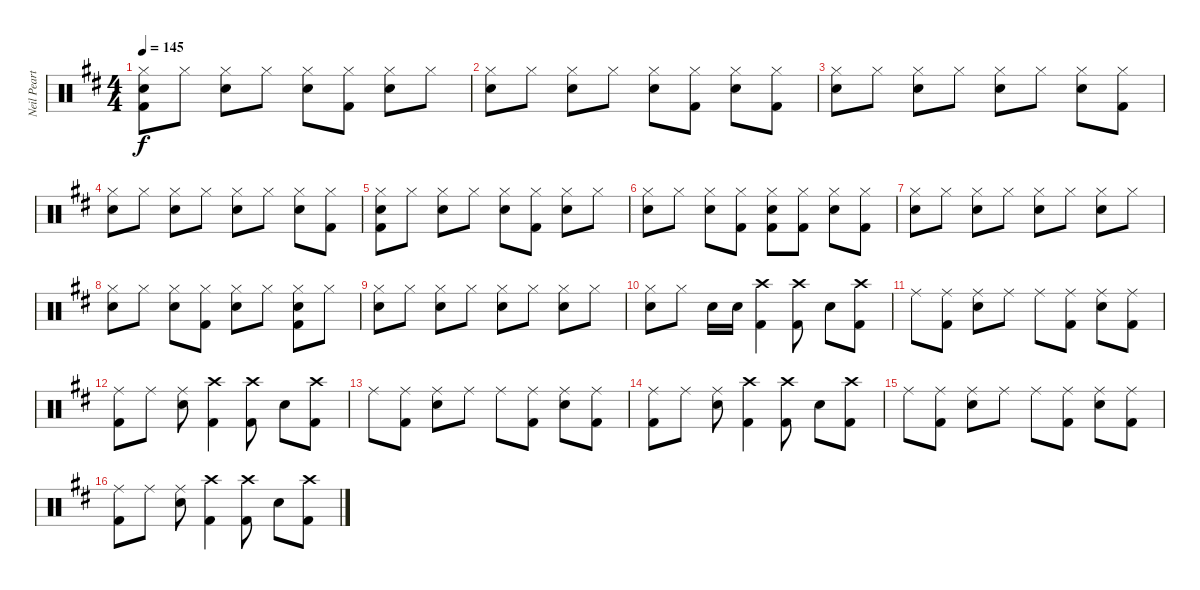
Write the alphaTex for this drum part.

\track ("Neil Peart" "Neil Peart") {instrument percussion}
\staff {score}
\articulation defaults
\ts (4 4)
\tempo 145
\clef neutral
\ks d
("Hi-Hat (closed)" "Snare (hit) 2" "Kick (hit) 2").8{dy f} "Hi-Hat (closed)".8 ("Hi-Hat (closed)" "Snare (hit) 2").8 "Hi-Hat (closed)".8 ("Hi-Hat (closed)" "Snare (hit) 2").8 ("Hi-Hat (closed)" "Kick (hit) 2").8 ("Hi-Hat (closed)" "Snare (hit) 2").8 "Hi-Hat (closed)".8 |
("Hi-Hat (closed)" "Snare (hit) 2").8 "Hi-Hat (closed)".8 ("Hi-Hat (closed)" "Snare (hit) 2").8 "Hi-Hat (closed)".8 ("Hi-Hat (closed)" "Snare (hit) 2").8 ("Hi-Hat (closed)" "Kick (hit) 2").8 ("Hi-Hat (closed)" "Snare (hit) 2").8 ("Hi-Hat (closed)" "Kick (hit) 2").8 |
("Hi-Hat (closed)" "Snare (hit) 2").8 "Hi-Hat (closed)".8 ("Hi-Hat (closed)" "Snare (hit) 2").8 "Hi-Hat (closed)".8 ("Hi-Hat (closed)" "Snare (hit) 2").8 "Hi-Hat (closed)".8 ("Hi-Hat (closed)" "Snare (hit) 2").8 ("Hi-Hat (closed)" "Kick (hit) 2").8 |
("Hi-Hat (closed)" "Snare (hit) 2").8 "Hi-Hat (closed)".8 ("Hi-Hat (closed)" "Snare (hit) 2").8 "Hi-Hat (closed)".8 ("Hi-Hat (closed)" "Snare (hit) 2").8 "Hi-Hat (closed)".8 ("Hi-Hat (closed)" "Snare (hit) 2").8 ("Hi-Hat (closed)" "Kick (hit) 2").8 |
("Hi-Hat (closed)" "Snare (hit) 2" "Kick (hit) 2").8 "Hi-Hat (closed)".8 ("Hi-Hat (closed)" "Snare (hit) 2").8 "Hi-Hat (closed)".8 ("Hi-Hat (closed)" "Snare (hit) 2").8 ("Hi-Hat (closed)" "Kick (hit) 2").8 ("Hi-Hat (closed)" "Snare (hit) 2").8 "Hi-Hat (closed)".8 |
("Hi-Hat (closed)" "Snare (hit) 2").8 "Hi-Hat (closed)".8 ("Hi-Hat (closed)" "Snare (hit) 2").8 ("Hi-Hat (closed)" "Kick (hit) 2").8 ("Hi-Hat (closed)" "Snare (hit) 2" "Kick (hit) 2").8 ("Hi-Hat (closed)" "Kick (hit) 2").8 ("Hi-Hat (closed)" "Snare (hit) 2").8 ("Hi-Hat (closed)" "Kick (hit) 2").8 |
("Hi-Hat (closed)" "Snare (hit) 2").8 "Hi-Hat (closed)".8 ("Hi-Hat (closed)" "Snare (hit) 2").8 "Hi-Hat (closed)".8 ("Hi-Hat (closed)" "Snare (hit) 2").8 "Hi-Hat (closed)".8 ("Hi-Hat (closed)" "Snare (hit) 2").8 "Hi-Hat (closed)".8 |
("Hi-Hat (closed)" "Snare (hit) 2").8 "Hi-Hat (closed)".8 ("Hi-Hat (closed)" "Snare (hit) 2").8 ("Hi-Hat (closed)" "Kick (hit) 2").8 ("Hi-Hat (closed)" "Snare (hit) 2").8 "Hi-Hat (closed)".8 ("Hi-Hat (closed)" "Snare (hit) 2" "Kick (hit) 2").8 "Hi-Hat (closed)".8 |
("Hi-Hat (closed)" "Snare (hit) 2").8 "Hi-Hat (closed)".8 ("Hi-Hat (closed)" "Snare (hit) 2").8 "Hi-Hat (closed)".8 ("Hi-Hat (closed)" "Snare (hit) 2").8 "Hi-Hat (closed)".8 ("Hi-Hat (closed)" "Snare (hit) 2").8 "Hi-Hat (closed)".8 |
("Hi-Hat (closed)" "Snare (hit) 2").8 "Hi-Hat (closed)".8 "Snare (hit) 2".16 "Snare (hit) 2".16 ("Crash high (hit)" "Kick (hit) 2").4 ("Crash high (hit)" "Kick (hit) 2").8 "Snare (hit) 2".8 ("Crash high (hit)" "Kick (hit) 2").8 |
"Ride (middle)".8 ("Ride (middle)" "Kick (hit) 2").8 ("Ride (middle)" "Snare (hit) 2").8 "Ride (middle)".8 "Ride (middle)".8 ("Ride (middle)" "Kick (hit) 2").8 ("Ride (middle)" "Snare (hit) 2").8 ("Ride (middle)" "Kick (hit) 2").8 |
("Ride (middle)" "Kick (hit) 2").8 "Ride (middle)".8 ("Ride (middle)" "Snare (hit) 2").8 ("Crash high (hit)" "Kick (hit) 2").4 ("Crash high (hit)" "Kick (hit) 2").8 "Snare (hit) 2".8 ("Crash high (hit)" "Kick (hit) 2").8 |
"Ride (middle)".8 ("Ride (middle)" "Kick (hit) 2").8 ("Ride (middle)" "Snare (hit) 2").8 "Ride (middle)".8 "Ride (middle)".8 ("Ride (middle)" "Kick (hit) 2").8 ("Ride (middle)" "Snare (hit) 2").8 ("Ride (middle)" "Kick (hit) 2").8 |
("Ride (middle)" "Kick (hit) 2").8 "Ride (middle)".8 ("Ride (middle)" "Snare (hit) 2").8 ("Crash high (hit)" "Kick (hit) 2").4 ("Crash high (hit)" "Kick (hit) 2").8 "Snare (hit) 2".8 ("Crash high (hit)" "Kick (hit) 2").8 |
"Ride (middle)".8 ("Ride (middle)" "Kick (hit) 2").8 ("Ride (middle)" "Snare (hit) 2").8 "Ride (middle)".8 "Ride (middle)".8 ("Ride (middle)" "Kick (hit) 2").8 ("Ride (middle)" "Snare (hit) 2").8 ("Ride (middle)" "Kick (hit) 2").8 |
("Ride (middle)" "Kick (hit) 2").8 "Ride (middle)".8 ("Ride (middle)" "Snare (hit) 2").8 ("Crash high (hit)" "Kick (hit) 2").4 ("Crash high (hit)" "Kick (hit) 2").8 "Snare (hit) 2".8 ("Crash high (hit)" "Kick (hit) 2").8
